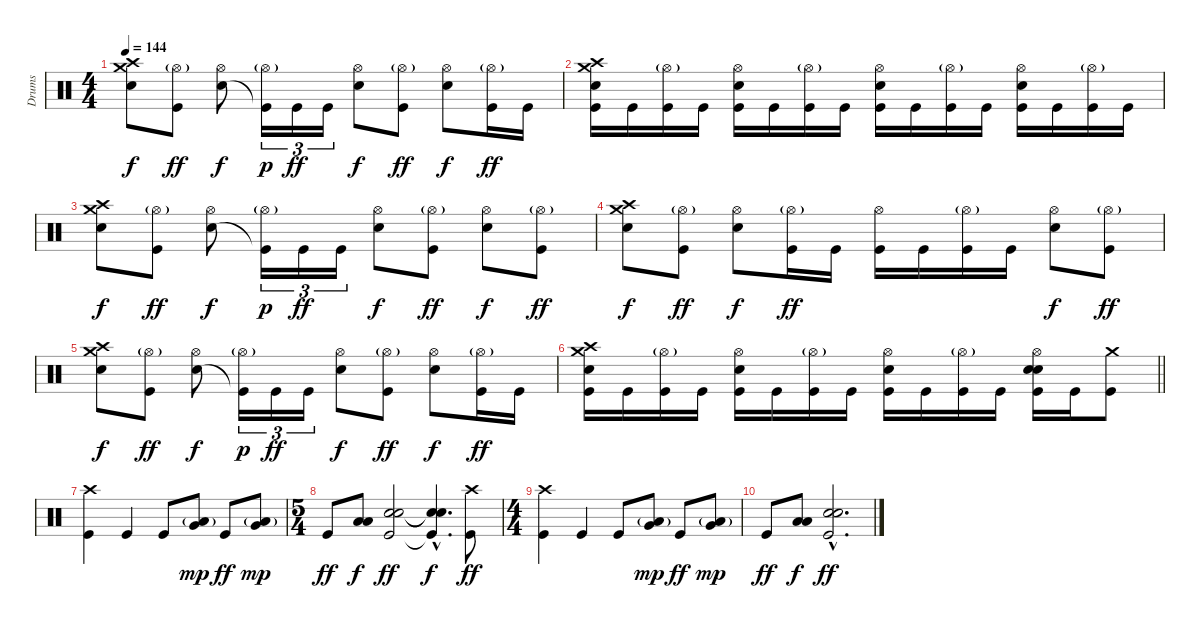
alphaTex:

\track ("Drums" "Drums") {instrument percussion}
\staff {score}
\articulation defaults
\ts (4 4)
\tempo 144
\clef neutral
\ks c
("Crash medium (hit)" "Crash high (hit)" "Snare (hit) 2").8{dy f} ("Hi-Hat (open)"{g} "Kick (hit)").8{dy ff} ("Hi-Hat (open)" "Snare (hit) 2").8{dy f} ("Hi-Hat (open)"{g} "Kick (hit)"{t}).16{tu (3 2) dy p} "Kick (hit)".16{tu (3 2) dy ff} "Kick (hit)".16{tu (3 2)} ("Hi-Hat (open)" "Snare (hit) 2").8{dy f} ("Hi-Hat (open)"{g} "Kick (hit)").8{dy ff} ("Hi-Hat (open)" "Snare (hit) 2").8{dy f} ("Hi-Hat (open)"{g} "Kick (hit)").16{dy ff} "Kick (hit)".16 |
("Crash medium (hit)" "Crash high (hit)" "Snare (hit) 2" "Kick (hit)").16 "Kick (hit)".16 ("Hi-Hat (open)"{g} "Kick (hit)").16 "Kick (hit)".16 ("Hi-Hat (open)" "Snare (hit) 2" "Kick (hit)").16 "Kick (hit)".16 ("Hi-Hat (open)"{g} "Kick (hit)").16 "Kick (hit)".16 ("Hi-Hat (open)" "Snare (hit) 2" "Kick (hit)").16 "Kick (hit)".16 ("Hi-Hat (open)"{g} "Kick (hit)").16 "Kick (hit)".16 ("Hi-Hat (open)" "Snare (hit) 2" "Kick (hit)").16 "Kick (hit)".16 ("Hi-Hat (open)"{g} "Kick (hit)").16 "Kick (hit)".16 |
("Crash medium (hit)" "Crash high (hit)" "Snare (hit) 2").8{dy f} ("Hi-Hat (open)"{g} "Kick (hit)").8{dy ff} ("Hi-Hat (open)" "Snare (hit) 2").8{dy f} ("Hi-Hat (open)"{g} "Kick (hit)"{t}).16{tu (3 2) dy p} "Kick (hit)".16{tu (3 2) dy ff} "Kick (hit)".16{tu (3 2)} ("Hi-Hat (open)" "Snare (hit) 2").8{dy f} ("Hi-Hat (open)"{g} "Kick (hit)").8{dy ff} ("Hi-Hat (open)" "Snare (hit) 2").8{dy f} ("Hi-Hat (open)"{g} "Kick (hit)").8{dy ff} |
("Crash medium (hit)" "Crash high (hit)" "Snare (hit) 2").8{dy f} ("Hi-Hat (open)"{g} "Kick (hit)").8{dy ff} ("Hi-Hat (open)" "Snare (hit) 2").8{dy f} ("Hi-Hat (open)"{g} "Kick (hit)").16{dy ff} "Kick (hit)".16 ("Hi-Hat (open)" "Kick (hit)").16 "Kick (hit)".16 ("Hi-Hat (open)"{g} "Kick (hit)").16 "Kick (hit)".16 ("Hi-Hat (open)" "Snare (hit) 2").8{dy f} ("Hi-Hat (open)"{g} "Kick (hit)").8{dy ff} |
("Crash medium (hit)" "Crash high (hit)" "Snare (hit) 2").8{dy f} ("Hi-Hat (open)"{g} "Kick (hit)").8{dy ff} ("Hi-Hat (open)" "Snare (hit) 2").8{dy f} ("Hi-Hat (open)"{g} "Kick (hit)"{t}).16{tu (3 2) dy p} "Kick (hit)".16{tu (3 2) dy ff} "Kick (hit)".16{tu (3 2)} ("Hi-Hat (open)" "Snare (hit) 2").8{dy f} ("Hi-Hat (open)"{g} "Kick (hit)").8{dy ff} ("Hi-Hat (open)" "Snare (hit) 2").8{dy f} ("Hi-Hat (open)"{g} "Kick (hit)").16{dy ff} "Kick (hit)".16 |
\barLineRight lightlight
("Crash medium (hit)" "Crash high (hit)" "Snare (hit) 2" "Kick (hit)").16 "Kick (hit)".16 ("Hi-Hat (open)"{g} "Kick (hit)").16 "Kick (hit)".16 ("Hi-Hat (open)" "Snare (hit) 2" "Kick (hit)").16 "Kick (hit)".16 ("Hi-Hat (open)"{g} "Kick (hit)").16 "Kick (hit)".16 ("Hi-Hat (open)" "Snare (hit) 2" "Kick (hit)").16 "Kick (hit)".16 ("Hi-Hat (open)"{g} "Kick (hit)").16 "Kick (hit)".16 ("Hi-Hat (open)" "Snare (hit) 2" "Snare (hit) 2" "Kick (hit)").16 "Kick (hit)".16 ("Crash medium (hit)" "Kick (hit)").8 |
("Crash high (hit)" "Kick (hit)").4 "Kick (hit)".4 "Kick (hit)".8 ("Very Low Tom (hit)" "Low Floor Tom (hit)"{g}).8{dy mp} "Kick (hit)".8{dy ff} ("Very Low Tom (hit)" "Low Floor Tom (hit)"{g}).8{dy mp} |
\ts (5 4)
"Kick (hit)".8{dy ff} ("Low Floor Tom (hit)" "Low Floor Tom (hit)").8{dy f} ("Snare (hit) 2" "Snare (hit) 2" "Kick (hit)").2{dy ff} ("Snare (hit) 2"{hac t} "Snare (hit) 2"{hac t} "Kick (hit)"{hac t}).4{d dy f} ("Crash high (hit)" "Kick (hit)").8{dy ff} |
\ts (4 4)
("Crash high (hit)" "Kick (hit)").4 "Kick (hit)".4 "Kick (hit)".8 ("Very Low Tom (hit)" "Low Floor Tom (hit)"{g}).8{dy mp} "Kick (hit)".8{dy ff} ("Very Low Tom (hit)" "Low Floor Tom (hit)"{g}).8{dy mp} |
"Kick (hit)".8{dy ff} ("Low Floor Tom (hit)" "Low Floor Tom (hit)").8{dy f} ("Snare (hit) 2"{hac} "Snare (hit) 2"{hac} "Kick (hit)"{hac}).2{d dy ff}
